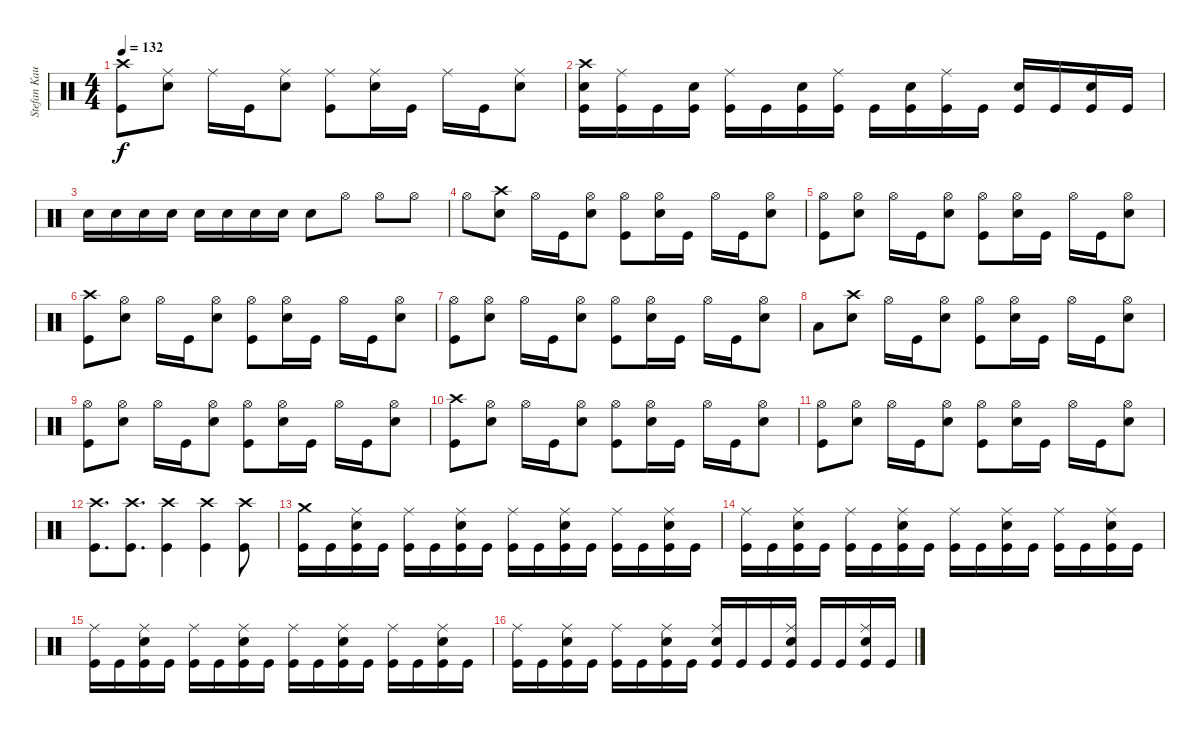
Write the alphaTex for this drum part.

\track ("Stefan Kaufmann" "Stefan Kau") {instrument percussion}
\staff {score}
\articulation defaults
\ts (4 4)
\tempo 132
\clef neutral
\ks c
("Crash high (hit)" "Kick (hit)").8{dy f} ("Ride (middle)" "Snare (hit) 2").8 "Ride (middle)".16 "Kick (hit)".16 ("Ride (middle)" "Snare (hit) 2").8 ("Ride (middle)" "Kick (hit)").8 ("Ride (middle)" "Snare (hit) 2").16 "Kick (hit)".16 "Ride (middle)".16 "Kick (hit)".16 ("Ride (middle)" "Snare (hit) 2").8 |
("Crash high (hit)" "Snare (hit) 2" "Kick (hit)").16 ("Ride (middle)" "Kick (hit)").16 "Kick (hit)".16 ("Snare (hit) 2" "Kick (hit)").16 ("Ride (middle)" "Kick (hit)").16 "Kick (hit)".16 ("Snare (hit) 2" "Kick (hit)").16 ("Ride (middle)" "Kick (hit)").16 "Kick (hit)".16 ("Snare (hit) 2" "Kick (hit)").16 ("Ride (middle)" "Kick (hit)").16 "Kick (hit)".16 ("Snare (hit) 2" "Kick (hit)").16 "Kick (hit)".16 ("Snare (hit) 2" "Kick (hit)").16 "Kick (hit)".16 |
"Snare (hit) 2".16 "Snare (hit) 2".16 "Snare (hit) 2".16 "Snare (hit) 2".16 "Snare (hit) 2".16 "Snare (hit) 2".16 "Snare (hit) 2".16 "Snare (hit) 2".16 "Snare (hit) 2".8 "Hi-Hat (open)".8 "Hi-Hat (open)".8 "Hi-Hat (open)".8 |
"Hi-Hat (open)".8 ("Crash high (hit)" "Snare (hit) 2").8 "Hi-Hat (open)".16 "Kick (hit)".16 ("Hi-Hat (open)" "Snare (hit) 2").8 ("Hi-Hat (open)" "Kick (hit)").8 ("Hi-Hat (open)" "Snare (hit) 2").16 "Kick (hit)".16 "Hi-Hat (open)".16 "Kick (hit)".16 ("Hi-Hat (open)" "Snare (hit) 2").8 |
("Hi-Hat (open)" "Kick (hit)").8 ("Hi-Hat (open)" "Snare (hit) 2").8 "Hi-Hat (open)".16 "Kick (hit)".16 ("Hi-Hat (open)" "Snare (hit) 2").8 ("Hi-Hat (open)" "Kick (hit)").8 ("Hi-Hat (open)" "Snare (hit) 2").16 "Kick (hit)".16 "Hi-Hat (open)".16 "Kick (hit)".16 ("Hi-Hat (open)" "Snare (hit) 2").8 |
("Crash high (hit)" "Kick (hit)").8 ("Hi-Hat (open)" "Snare (hit) 2").8 "Hi-Hat (open)".16 "Kick (hit)".16 ("Hi-Hat (open)" "Snare (hit) 2").8 ("Hi-Hat (open)" "Kick (hit)").8 ("Hi-Hat (open)" "Snare (hit) 2").16 "Kick (hit)".16 "Hi-Hat (open)".16 "Kick (hit)".16 ("Hi-Hat (open)" "Snare (hit) 2").8 |
("Hi-Hat (open)" "Kick (hit)").8 ("Hi-Hat (open)" "Snare (hit) 2").8 "Hi-Hat (open)".16 "Kick (hit)".16 ("Hi-Hat (open)" "Snare (hit) 2").8 ("Hi-Hat (open)" "Kick (hit)").8 ("Hi-Hat (open)" "Snare (hit) 2").16 "Kick (hit)".16 "Hi-Hat (open)".16 "Kick (hit)".16 ("Hi-Hat (open)" "Snare (hit) 2").8 |
"Low Tom (hit)".8 ("Crash high (hit)" "Snare (hit) 2").8 "Hi-Hat (open)".16 "Kick (hit)".16 ("Hi-Hat (open)" "Snare (hit) 2").8 ("Hi-Hat (open)" "Kick (hit)").8 ("Hi-Hat (open)" "Snare (hit) 2").16 "Kick (hit)".16 "Hi-Hat (open)".16 "Kick (hit)".16 ("Hi-Hat (open)" "Snare (hit) 2").8 |
("Hi-Hat (open)" "Kick (hit)").8 ("Hi-Hat (open)" "Snare (hit) 2").8 "Hi-Hat (open)".16 "Kick (hit)".16 ("Hi-Hat (open)" "Snare (hit) 2").8 ("Hi-Hat (open)" "Kick (hit)").8 ("Hi-Hat (open)" "Snare (hit) 2").16 "Kick (hit)".16 "Hi-Hat (open)".16 "Kick (hit)".16 ("Hi-Hat (open)" "Snare (hit) 2").8 |
("Crash high (hit)" "Kick (hit)").8 ("Hi-Hat (open)" "Snare (hit) 2").8 "Hi-Hat (open)".16 "Kick (hit)".16 ("Hi-Hat (open)" "Snare (hit) 2").8 ("Hi-Hat (open)" "Kick (hit)").8 ("Hi-Hat (open)" "Snare (hit) 2").16 "Kick (hit)".16 "Hi-Hat (open)".16 "Kick (hit)".16 ("Hi-Hat (open)" "Snare (hit) 2").8 |
("Hi-Hat (open)" "Kick (hit)").8 ("Hi-Hat (open)" "Snare (hit) 2").8 "Hi-Hat (open)".16 "Kick (hit)".16 ("Hi-Hat (open)" "Snare (hit) 2").8 ("Hi-Hat (open)" "Kick (hit)").8 ("Hi-Hat (open)" "Snare (hit) 2").16 "Kick (hit)".16 "Hi-Hat (open)".16 "Kick (hit)".16 ("Hi-Hat (open)" "Snare (hit) 2").8 |
("Crash high (hit)" "Kick (hit)").8{d} ("Crash high (hit)" "Kick (hit)").8{d} ("Crash high (hit)" "Kick (hit)").4 ("Crash high (hit)" "Kick (hit)").4 ("Crash high (hit)" "Kick (hit)").8 |
("Crash medium (hit)" "Kick (hit)").16 "Kick (hit)".16 ("Ride (middle)" "Snare (hit) 2" "Kick (hit)").16 "Kick (hit)".16 ("Ride (middle)" "Kick (hit)").16 "Kick (hit)".16 ("Ride (middle)" "Snare (hit) 2" "Kick (hit)").16 "Kick (hit)".16 ("Ride (middle)" "Kick (hit)").16 "Kick (hit)".16 ("Ride (middle)" "Snare (hit) 2" "Kick (hit)").16 "Kick (hit)".16 ("Ride (middle)" "Kick (hit)").16 "Kick (hit)".16 ("Ride (middle)" "Snare (hit) 2" "Kick (hit)").16 "Kick (hit)".16 |
("Ride (middle)" "Kick (hit)").16 "Kick (hit)".16 ("Ride (middle)" "Snare (hit) 2" "Kick (hit)").16 "Kick (hit)".16 ("Ride (middle)" "Kick (hit)").16 "Kick (hit)".16 ("Ride (middle)" "Snare (hit) 2" "Kick (hit)").16 "Kick (hit)".16 ("Ride (middle)" "Kick (hit)").16 "Kick (hit)".16 ("Ride (middle)" "Snare (hit) 2" "Kick (hit)").16 "Kick (hit)".16 ("Ride (middle)" "Kick (hit)").16 "Kick (hit)".16 ("Ride (middle)" "Snare (hit) 2" "Kick (hit)").16 "Kick (hit)".16 |
("Ride (middle)" "Kick (hit)").16 "Kick (hit)".16 ("Ride (middle)" "Snare (hit) 2" "Kick (hit)").16 "Kick (hit)".16 ("Ride (middle)" "Kick (hit)").16 "Kick (hit)".16 ("Ride (middle)" "Snare (hit) 2" "Kick (hit)").16 "Kick (hit)".16 ("Ride (middle)" "Kick (hit)").16 "Kick (hit)".16 ("Ride (middle)" "Snare (hit) 2" "Kick (hit)").16 "Kick (hit)".16 ("Ride (middle)" "Kick (hit)").16 "Kick (hit)".16 ("Ride (middle)" "Snare (hit) 2" "Kick (hit)").16 "Kick (hit)".16 |
("Ride (middle)" "Kick (hit)").16 "Kick (hit)".16 ("Ride (middle)" "Snare (hit) 2" "Kick (hit)").16 "Kick (hit)".16 ("Ride (middle)" "Kick (hit)").16 "Kick (hit)".16 ("Ride (middle)" "Snare (hit) 2" "Kick (hit)").16 "Kick (hit)".16 ("Ride (middle)" "Snare (hit) 2" "Kick (hit)").16 "Kick (hit)".16 "Kick (hit)".16 ("Ride (middle)" "Snare (hit) 2" "Kick (hit)").16 "Kick (hit)".16 "Kick (hit)".16 ("Ride (middle)" "Snare (hit) 2" "Kick (hit)").16 "Kick (hit)".16
